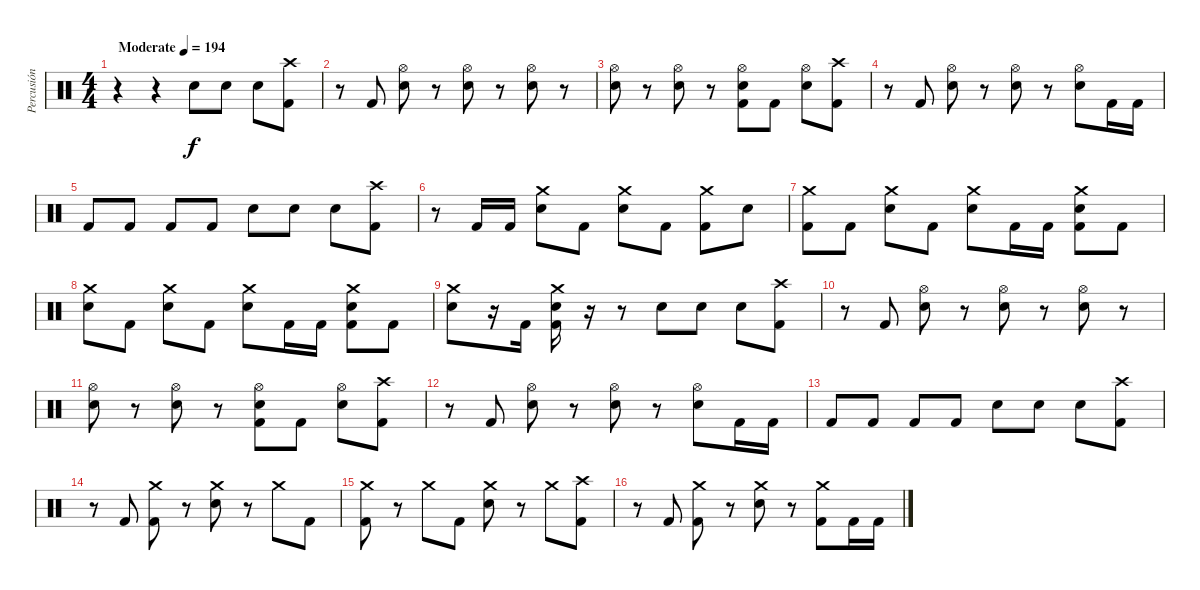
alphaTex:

\track ("Percusión" "Percusión") {instrument percussion}
\staff {score}
\articulation defaults
\ts (4 4)
\tempo (194 "Moderate")
\clef neutral
\ks c
r.4{dy f} r.4 "Snare (hit) 2".8 "Snare (hit) 2".8 "Snare (hit) 2".8 ("Kick (hit) 2" "Crash high (hit)").8 |
r.8 "Kick (hit) 2".8 ("Snare (hit) 2" "Hi-Hat (open)").8 r.8 ("Snare (hit) 2" "Hi-Hat (open)").8 r.8 ("Snare (hit) 2" "Hi-Hat (open)").8 r.8 |
("Snare (hit) 2" "Hi-Hat (open)").8 r.8 ("Snare (hit) 2" "Hi-Hat (open)").8 r.8 ("Kick (hit) 2" "Snare (hit) 2" "Hi-Hat (open)").8 "Kick (hit) 2".8 ("Snare (hit) 2" "Hi-Hat (open)").8 ("Kick (hit) 2" "Crash high (hit)").8 |
r.8 "Kick (hit) 2".8 ("Snare (hit) 2" "Hi-Hat (open)").8 r.8 ("Snare (hit) 2" "Hi-Hat (open)").8 r.8 ("Snare (hit) 2" "Hi-Hat (open)").8 "Kick (hit) 2".16 "Kick (hit) 2".16 |
"Kick (hit) 2".8 "Kick (hit) 2".8 "Kick (hit) 2".8 "Kick (hit) 2".8 "Snare (hit) 2".8 "Snare (hit) 2".8 "Snare (hit) 2".8 ("Kick (hit) 2" "Crash high (hit)").8 |
r.8 "Kick (hit) 2".16 "Kick (hit) 2".16 ("Snare (hit) 2" "Crash medium (hit)").8 "Kick (hit) 2".8 ("Snare (hit) 2" "Crash medium (hit)").8 "Kick (hit) 2".8 ("Kick (hit) 2" "Crash medium (hit)").8 "Snare (hit) 2".8 |
("Kick (hit) 2" "Crash medium (hit)").8 "Kick (hit) 2".8 ("Snare (hit) 2" "Crash medium (hit)").8 "Kick (hit) 2".8 ("Snare (hit) 2" "Crash medium (hit)").8 "Kick (hit) 2".16 "Kick (hit) 2".16 ("Kick (hit) 2" "Snare (hit) 2" "Crash medium (hit)").8 "Kick (hit) 2".8 |
("Snare (hit) 2" "Crash medium (hit)").8 "Kick (hit) 2".8 ("Snare (hit) 2" "Crash medium (hit)").8 "Kick (hit) 2".8 ("Snare (hit) 2" "Crash medium (hit)").8 "Kick (hit) 2".16 "Kick (hit) 2".16 ("Kick (hit) 2" "Snare (hit) 2" "Crash medium (hit)").8 "Kick (hit) 2".8 |
("Snare (hit) 2" "Crash medium (hit)").8 r.16 "Kick (hit) 2".16 ("Kick (hit) 2" "Snare (hit) 2" "Crash medium (hit)").16 r.16 r.8 "Snare (hit) 2".8 "Snare (hit) 2".8 "Snare (hit) 2".8 ("Kick (hit) 2" "Crash high (hit)").8 |
r.8 "Kick (hit) 2".8 ("Snare (hit) 2" "Hi-Hat (open)").8 r.8 ("Snare (hit) 2" "Hi-Hat (open)").8 r.8 ("Snare (hit) 2" "Hi-Hat (open)").8 r.8 |
("Snare (hit) 2" "Hi-Hat (open)").8 r.8 ("Snare (hit) 2" "Hi-Hat (open)").8 r.8 ("Kick (hit) 2" "Snare (hit) 2" "Hi-Hat (open)").8 "Kick (hit) 2".8 ("Snare (hit) 2" "Hi-Hat (open)").8 ("Kick (hit) 2" "Crash high (hit)").8 |
r.8 "Kick (hit) 2".8 ("Snare (hit) 2" "Hi-Hat (open)").8 r.8 ("Snare (hit) 2" "Hi-Hat (open)").8 r.8 ("Snare (hit) 2" "Hi-Hat (open)").8 "Kick (hit) 2".16 "Kick (hit) 2".16 |
"Kick (hit) 2".8 "Kick (hit) 2".8 "Kick (hit) 2".8 "Kick (hit) 2".8 "Snare (hit) 2".8 "Snare (hit) 2".8 "Snare (hit) 2".8 ("Kick (hit) 2" "Crash high (hit)").8 |
r.8 "Kick (hit) 2".8 ("Kick (hit) 2" "Crash medium (hit)").8 r.8 ("Snare (hit) 2" "Crash medium (hit)").8 r.8 "Crash medium (hit)".8 "Kick (hit) 2".8 |
("Kick (hit) 2" "Crash medium (hit)").8 r.8 "Crash medium (hit)".8 "Kick (hit) 2".8 ("Snare (hit) 2" "Crash medium (hit)").8 r.8 "Crash medium (hit)".8 ("Kick (hit) 2" "Crash high (hit)").8 |
r.8 "Kick (hit) 2".8 ("Kick (hit) 2" "Crash medium (hit)").8 r.8 ("Snare (hit) 2" "Crash medium (hit)").8 r.8 ("Kick (hit) 2" "Crash medium (hit)").8 "Kick (hit) 2".16 "Kick (hit) 2".16
